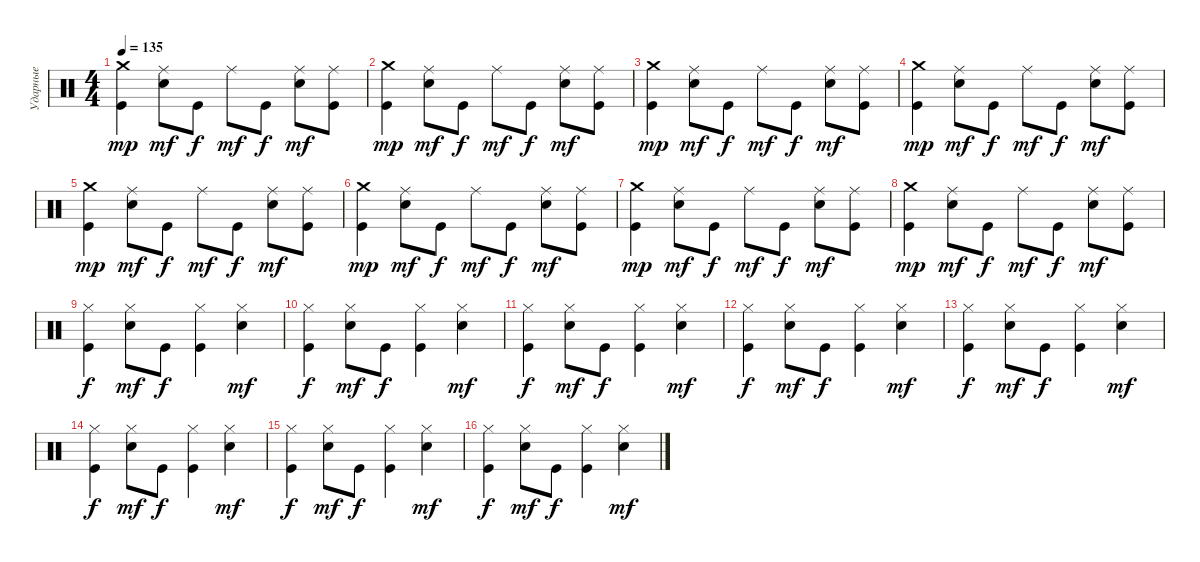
\track ("Ударные" "Ударные") {instrument percussion}
\staff {score}
\articulation defaults
\ts (4 4)
\tempo 135
\clef neutral
\ks c
("Crash medium (hit)" "Kick (hit)").4{dy mp} ("Ride (middle)" "Electric Snare (hit)").8{dy mf} "Kick (hit)".8{dy f} "Ride (middle)".8{dy mf} "Kick (hit)".8{dy f} ("Ride (middle)" "Electric Snare (hit)").8{dy mf} ("Ride (middle)" "Kick (hit)").8 |
("Crash medium (hit)" "Kick (hit)").4{dy mp} ("Ride (middle)" "Electric Snare (hit)").8{dy mf} "Kick (hit)".8{dy f} "Ride (middle)".8{dy mf} "Kick (hit)".8{dy f} ("Ride (middle)" "Electric Snare (hit)").8{dy mf} ("Ride (middle)" "Kick (hit)").8 |
("Crash medium (hit)" "Kick (hit)").4{dy mp} ("Ride (middle)" "Electric Snare (hit)").8{dy mf} "Kick (hit)".8{dy f} "Ride (middle)".8{dy mf} "Kick (hit)".8{dy f} ("Ride (middle)" "Electric Snare (hit)").8{dy mf} ("Ride (middle)" "Kick (hit)").8 |
("Crash medium (hit)" "Kick (hit)").4{dy mp} ("Ride (middle)" "Electric Snare (hit)").8{dy mf} "Kick (hit)".8{dy f} "Ride (middle)".8{dy mf} "Kick (hit)".8{dy f} ("Ride (middle)" "Electric Snare (hit)").8{dy mf} ("Ride (middle)" "Kick (hit)").8 |
("Crash medium (hit)" "Kick (hit)").4{dy mp} ("Ride (middle)" "Electric Snare (hit)").8{dy mf} "Kick (hit)".8{dy f} "Ride (middle)".8{dy mf} "Kick (hit)".8{dy f} ("Ride (middle)" "Electric Snare (hit)").8{dy mf} ("Ride (middle)" "Kick (hit)").8 |
("Crash medium (hit)" "Kick (hit)").4{dy mp} ("Ride (middle)" "Electric Snare (hit)").8{dy mf} "Kick (hit)".8{dy f} "Ride (middle)".8{dy mf} "Kick (hit)".8{dy f} ("Ride (middle)" "Electric Snare (hit)").8{dy mf} ("Ride (middle)" "Kick (hit)").8 |
("Crash medium (hit)" "Kick (hit)").4{dy mp} ("Ride (middle)" "Electric Snare (hit)").8{dy mf} "Kick (hit)".8{dy f} "Ride (middle)".8{dy mf} "Kick (hit)".8{dy f} ("Ride (middle)" "Electric Snare (hit)").8{dy mf} ("Ride (middle)" "Kick (hit)").8 |
("Crash medium (hit)" "Kick (hit)").4{dy mp} ("Ride (middle)" "Electric Snare (hit)").8{dy mf} "Kick (hit)".8{dy f} "Ride (middle)".8{dy mf} "Kick (hit)".8{dy f} ("Ride (middle)" "Electric Snare (hit)").8{dy mf} ("Ride (middle)" "Kick (hit)").8 |
("Hi-Hat (closed)" "Kick (hit)").4{dy f} ("Hi-Hat (closed)" "Electric Snare (hit)").8{dy mf} "Kick (hit)".8{dy f} ("Hi-Hat (closed)" "Kick (hit)").4 ("Hi-Hat (closed)" "Electric Snare (hit)").4{dy mf} |
("Hi-Hat (closed)" "Kick (hit)").4{dy f} ("Hi-Hat (closed)" "Electric Snare (hit)").8{dy mf} "Kick (hit)".8{dy f} ("Hi-Hat (closed)" "Kick (hit)").4 ("Hi-Hat (closed)" "Electric Snare (hit)").4{dy mf} |
("Hi-Hat (closed)" "Kick (hit)").4{dy f} ("Hi-Hat (closed)" "Electric Snare (hit)").8{dy mf} "Kick (hit)".8{dy f} ("Hi-Hat (closed)" "Kick (hit)").4 ("Hi-Hat (closed)" "Electric Snare (hit)").4{dy mf} |
("Hi-Hat (closed)" "Kick (hit)").4{dy f} ("Hi-Hat (closed)" "Electric Snare (hit)").8{dy mf} "Kick (hit)".8{dy f} ("Hi-Hat (closed)" "Kick (hit)").4 ("Hi-Hat (closed)" "Electric Snare (hit)").4{dy mf} |
("Hi-Hat (closed)" "Kick (hit)").4{dy f} ("Hi-Hat (closed)" "Electric Snare (hit)").8{dy mf} "Kick (hit)".8{dy f} ("Hi-Hat (closed)" "Kick (hit)").4 ("Hi-Hat (closed)" "Electric Snare (hit)").4{dy mf} |
("Hi-Hat (closed)" "Kick (hit)").4{dy f} ("Hi-Hat (closed)" "Electric Snare (hit)").8{dy mf} "Kick (hit)".8{dy f} ("Hi-Hat (closed)" "Kick (hit)").4 ("Hi-Hat (closed)" "Electric Snare (hit)").4{dy mf} |
("Hi-Hat (closed)" "Kick (hit)").4{dy f} ("Hi-Hat (closed)" "Electric Snare (hit)").8{dy mf} "Kick (hit)".8{dy f} ("Hi-Hat (closed)" "Kick (hit)").4 ("Hi-Hat (closed)" "Electric Snare (hit)").4{dy mf} |
("Hi-Hat (closed)" "Kick (hit)").4{dy f} ("Hi-Hat (closed)" "Electric Snare (hit)").8{dy mf} "Kick (hit)".8{dy f} ("Hi-Hat (closed)" "Kick (hit)").4 ("Hi-Hat (closed)" "Electric Snare (hit)").4{dy mf}
